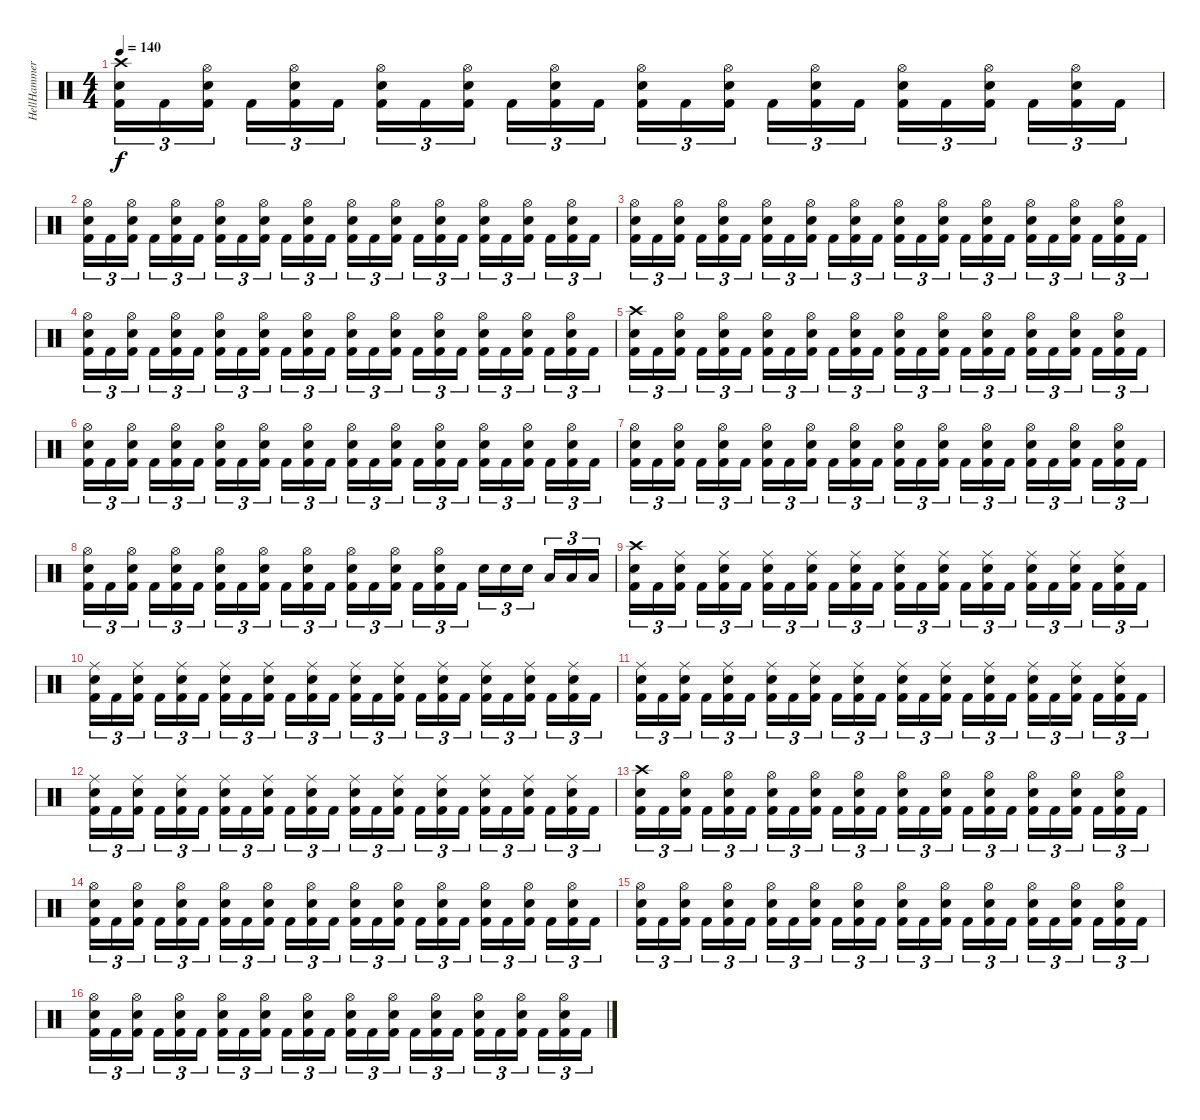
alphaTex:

\track ("HellHammer" "HellHammer") {instrument percussion}
\staff {score}
\articulation defaults
\ts (4 4)
\tempo 140
\clef neutral
\ks c
("Crash high (hit)" "Electric Snare (hit)" "Kick (hit) 2").16{tu (3 2) dy f} "Kick (hit) 2".16{tu (3 2)} ("Hi-Hat (open)" "Electric Snare (hit)" "Kick (hit) 2").16{tu (3 2) beam splitsecondary} "Kick (hit) 2".16{tu (3 2)} ("Hi-Hat (open)" "Electric Snare (hit)" "Kick (hit) 2").16{tu (3 2)} "Kick (hit) 2".16{tu (3 2)} ("Hi-Hat (open)" "Electric Snare (hit)" "Kick (hit) 2").16{tu (3 2)} "Kick (hit) 2".16{tu (3 2)} ("Hi-Hat (open)" "Electric Snare (hit)" "Kick (hit) 2").16{tu (3 2) beam splitsecondary} "Kick (hit) 2".16{tu (3 2)} ("Hi-Hat (open)" "Electric Snare (hit)" "Kick (hit) 2").16{tu (3 2)} "Kick (hit) 2".16{tu (3 2)} ("Hi-Hat (open)" "Electric Snare (hit)" "Kick (hit) 2").16{tu (3 2)} "Kick (hit) 2".16{tu (3 2)} ("Hi-Hat (open)" "Electric Snare (hit)" "Kick (hit) 2").16{tu (3 2) beam splitsecondary} "Kick (hit) 2".16{tu (3 2)} ("Hi-Hat (open)" "Electric Snare (hit)" "Kick (hit) 2").16{tu (3 2)} "Kick (hit) 2".16{tu (3 2)} ("Hi-Hat (open)" "Electric Snare (hit)" "Kick (hit) 2").16{tu (3 2)} "Kick (hit) 2".16{tu (3 2)} ("Hi-Hat (open)" "Electric Snare (hit)" "Kick (hit) 2").16{tu (3 2) beam splitsecondary} "Kick (hit) 2".16{tu (3 2)} ("Hi-Hat (open)" "Electric Snare (hit)" "Kick (hit) 2").16{tu (3 2)} "Kick (hit) 2".16{tu (3 2)} |
("Hi-Hat (open)" "Electric Snare (hit)" "Kick (hit) 2").16{tu (3 2)} "Kick (hit) 2".16{tu (3 2)} ("Hi-Hat (open)" "Electric Snare (hit)" "Kick (hit) 2").16{tu (3 2) beam splitsecondary} "Kick (hit) 2".16{tu (3 2)} ("Hi-Hat (open)" "Electric Snare (hit)" "Kick (hit) 2").16{tu (3 2)} "Kick (hit) 2".16{tu (3 2)} ("Hi-Hat (open)" "Electric Snare (hit)" "Kick (hit) 2").16{tu (3 2)} "Kick (hit) 2".16{tu (3 2)} ("Hi-Hat (open)" "Electric Snare (hit)" "Kick (hit) 2").16{tu (3 2) beam splitsecondary} "Kick (hit) 2".16{tu (3 2)} ("Hi-Hat (open)" "Electric Snare (hit)" "Kick (hit) 2").16{tu (3 2)} "Kick (hit) 2".16{tu (3 2)} ("Hi-Hat (open)" "Electric Snare (hit)" "Kick (hit) 2").16{tu (3 2)} "Kick (hit) 2".16{tu (3 2)} ("Hi-Hat (open)" "Electric Snare (hit)" "Kick (hit) 2").16{tu (3 2) beam splitsecondary} "Kick (hit) 2".16{tu (3 2)} ("Hi-Hat (open)" "Electric Snare (hit)" "Kick (hit) 2").16{tu (3 2)} "Kick (hit) 2".16{tu (3 2)} ("Hi-Hat (open)" "Electric Snare (hit)" "Kick (hit) 2").16{tu (3 2)} "Kick (hit) 2".16{tu (3 2)} ("Hi-Hat (open)" "Electric Snare (hit)" "Kick (hit) 2").16{tu (3 2) beam splitsecondary} "Kick (hit) 2".16{tu (3 2)} ("Hi-Hat (open)" "Electric Snare (hit)" "Kick (hit) 2").16{tu (3 2)} "Kick (hit) 2".16{tu (3 2)} |
("Hi-Hat (open)" "Electric Snare (hit)" "Kick (hit) 2").16{tu (3 2)} "Kick (hit) 2".16{tu (3 2)} ("Hi-Hat (open)" "Electric Snare (hit)" "Kick (hit) 2").16{tu (3 2) beam splitsecondary} "Kick (hit) 2".16{tu (3 2)} ("Hi-Hat (open)" "Electric Snare (hit)" "Kick (hit) 2").16{tu (3 2)} "Kick (hit) 2".16{tu (3 2)} ("Hi-Hat (open)" "Electric Snare (hit)" "Kick (hit) 2").16{tu (3 2)} "Kick (hit) 2".16{tu (3 2)} ("Hi-Hat (open)" "Electric Snare (hit)" "Kick (hit) 2").16{tu (3 2) beam splitsecondary} "Kick (hit) 2".16{tu (3 2)} ("Hi-Hat (open)" "Electric Snare (hit)" "Kick (hit) 2").16{tu (3 2)} "Kick (hit) 2".16{tu (3 2)} ("Hi-Hat (open)" "Electric Snare (hit)" "Kick (hit) 2").16{tu (3 2)} "Kick (hit) 2".16{tu (3 2)} ("Hi-Hat (open)" "Electric Snare (hit)" "Kick (hit) 2").16{tu (3 2) beam splitsecondary} "Kick (hit) 2".16{tu (3 2)} ("Hi-Hat (open)" "Electric Snare (hit)" "Kick (hit) 2").16{tu (3 2)} "Kick (hit) 2".16{tu (3 2)} ("Hi-Hat (open)" "Electric Snare (hit)" "Kick (hit) 2").16{tu (3 2)} "Kick (hit) 2".16{tu (3 2)} ("Hi-Hat (open)" "Electric Snare (hit)" "Kick (hit) 2").16{tu (3 2) beam splitsecondary} "Kick (hit) 2".16{tu (3 2)} ("Hi-Hat (open)" "Electric Snare (hit)" "Kick (hit) 2").16{tu (3 2)} "Kick (hit) 2".16{tu (3 2)} |
("Hi-Hat (open)" "Electric Snare (hit)" "Kick (hit) 2").16{tu (3 2)} "Kick (hit) 2".16{tu (3 2)} ("Hi-Hat (open)" "Electric Snare (hit)" "Kick (hit) 2").16{tu (3 2) beam splitsecondary} "Kick (hit) 2".16{tu (3 2)} ("Hi-Hat (open)" "Electric Snare (hit)" "Kick (hit) 2").16{tu (3 2)} "Kick (hit) 2".16{tu (3 2)} ("Hi-Hat (open)" "Electric Snare (hit)" "Kick (hit) 2").16{tu (3 2)} "Kick (hit) 2".16{tu (3 2)} ("Hi-Hat (open)" "Electric Snare (hit)" "Kick (hit) 2").16{tu (3 2) beam splitsecondary} "Kick (hit) 2".16{tu (3 2)} ("Hi-Hat (open)" "Electric Snare (hit)" "Kick (hit) 2").16{tu (3 2)} "Kick (hit) 2".16{tu (3 2)} ("Hi-Hat (open)" "Electric Snare (hit)" "Kick (hit) 2").16{tu (3 2)} "Kick (hit) 2".16{tu (3 2)} ("Hi-Hat (open)" "Electric Snare (hit)" "Kick (hit) 2").16{tu (3 2) beam splitsecondary} "Kick (hit) 2".16{tu (3 2)} ("Hi-Hat (open)" "Electric Snare (hit)" "Kick (hit) 2").16{tu (3 2)} "Kick (hit) 2".16{tu (3 2)} ("Hi-Hat (open)" "Electric Snare (hit)" "Kick (hit) 2").16{tu (3 2)} "Kick (hit) 2".16{tu (3 2)} ("Hi-Hat (open)" "Electric Snare (hit)" "Kick (hit) 2").16{tu (3 2) beam splitsecondary} "Kick (hit) 2".16{tu (3 2)} ("Hi-Hat (open)" "Electric Snare (hit)" "Kick (hit) 2").16{tu (3 2)} "Kick (hit) 2".16{tu (3 2)} |
("Crash high (hit)" "Electric Snare (hit)" "Kick (hit) 2").16{tu (3 2)} "Kick (hit) 2".16{tu (3 2)} ("Hi-Hat (open)" "Electric Snare (hit)" "Kick (hit) 2").16{tu (3 2) beam splitsecondary} "Kick (hit) 2".16{tu (3 2)} ("Hi-Hat (open)" "Electric Snare (hit)" "Kick (hit) 2").16{tu (3 2)} "Kick (hit) 2".16{tu (3 2)} ("Hi-Hat (open)" "Electric Snare (hit)" "Kick (hit) 2").16{tu (3 2)} "Kick (hit) 2".16{tu (3 2)} ("Hi-Hat (open)" "Electric Snare (hit)" "Kick (hit) 2").16{tu (3 2) beam splitsecondary} "Kick (hit) 2".16{tu (3 2)} ("Hi-Hat (open)" "Electric Snare (hit)" "Kick (hit) 2").16{tu (3 2)} "Kick (hit) 2".16{tu (3 2)} ("Hi-Hat (open)" "Electric Snare (hit)" "Kick (hit) 2").16{tu (3 2)} "Kick (hit) 2".16{tu (3 2)} ("Hi-Hat (open)" "Electric Snare (hit)" "Kick (hit) 2").16{tu (3 2) beam splitsecondary} "Kick (hit) 2".16{tu (3 2)} ("Hi-Hat (open)" "Electric Snare (hit)" "Kick (hit) 2").16{tu (3 2)} "Kick (hit) 2".16{tu (3 2)} ("Hi-Hat (open)" "Electric Snare (hit)" "Kick (hit) 2").16{tu (3 2)} "Kick (hit) 2".16{tu (3 2)} ("Hi-Hat (open)" "Electric Snare (hit)" "Kick (hit) 2").16{tu (3 2) beam splitsecondary} "Kick (hit) 2".16{tu (3 2)} ("Hi-Hat (open)" "Electric Snare (hit)" "Kick (hit) 2").16{tu (3 2)} "Kick (hit) 2".16{tu (3 2)} |
("Hi-Hat (open)" "Electric Snare (hit)" "Kick (hit) 2").16{tu (3 2)} "Kick (hit) 2".16{tu (3 2)} ("Hi-Hat (open)" "Electric Snare (hit)" "Kick (hit) 2").16{tu (3 2) beam splitsecondary} "Kick (hit) 2".16{tu (3 2)} ("Hi-Hat (open)" "Electric Snare (hit)" "Kick (hit) 2").16{tu (3 2)} "Kick (hit) 2".16{tu (3 2)} ("Hi-Hat (open)" "Electric Snare (hit)" "Kick (hit) 2").16{tu (3 2)} "Kick (hit) 2".16{tu (3 2)} ("Hi-Hat (open)" "Electric Snare (hit)" "Kick (hit) 2").16{tu (3 2) beam splitsecondary} "Kick (hit) 2".16{tu (3 2)} ("Hi-Hat (open)" "Electric Snare (hit)" "Kick (hit) 2").16{tu (3 2)} "Kick (hit) 2".16{tu (3 2)} ("Hi-Hat (open)" "Electric Snare (hit)" "Kick (hit) 2").16{tu (3 2)} "Kick (hit) 2".16{tu (3 2)} ("Hi-Hat (open)" "Electric Snare (hit)" "Kick (hit) 2").16{tu (3 2) beam splitsecondary} "Kick (hit) 2".16{tu (3 2)} ("Hi-Hat (open)" "Electric Snare (hit)" "Kick (hit) 2").16{tu (3 2)} "Kick (hit) 2".16{tu (3 2)} ("Hi-Hat (open)" "Electric Snare (hit)" "Kick (hit) 2").16{tu (3 2)} "Kick (hit) 2".16{tu (3 2)} ("Hi-Hat (open)" "Electric Snare (hit)" "Kick (hit) 2").16{tu (3 2) beam splitsecondary} "Kick (hit) 2".16{tu (3 2)} ("Hi-Hat (open)" "Electric Snare (hit)" "Kick (hit) 2").16{tu (3 2)} "Kick (hit) 2".16{tu (3 2)} |
("Hi-Hat (open)" "Electric Snare (hit)" "Kick (hit) 2").16{tu (3 2)} "Kick (hit) 2".16{tu (3 2)} ("Hi-Hat (open)" "Electric Snare (hit)" "Kick (hit) 2").16{tu (3 2) beam splitsecondary} "Kick (hit) 2".16{tu (3 2)} ("Hi-Hat (open)" "Electric Snare (hit)" "Kick (hit) 2").16{tu (3 2)} "Kick (hit) 2".16{tu (3 2)} ("Hi-Hat (open)" "Electric Snare (hit)" "Kick (hit) 2").16{tu (3 2)} "Kick (hit) 2".16{tu (3 2)} ("Hi-Hat (open)" "Electric Snare (hit)" "Kick (hit) 2").16{tu (3 2) beam splitsecondary} "Kick (hit) 2".16{tu (3 2)} ("Hi-Hat (open)" "Electric Snare (hit)" "Kick (hit) 2").16{tu (3 2)} "Kick (hit) 2".16{tu (3 2)} ("Hi-Hat (open)" "Electric Snare (hit)" "Kick (hit) 2").16{tu (3 2)} "Kick (hit) 2".16{tu (3 2)} ("Hi-Hat (open)" "Electric Snare (hit)" "Kick (hit) 2").16{tu (3 2) beam splitsecondary} "Kick (hit) 2".16{tu (3 2)} ("Hi-Hat (open)" "Electric Snare (hit)" "Kick (hit) 2").16{tu (3 2)} "Kick (hit) 2".16{tu (3 2)} ("Hi-Hat (open)" "Electric Snare (hit)" "Kick (hit) 2").16{tu (3 2)} "Kick (hit) 2".16{tu (3 2)} ("Hi-Hat (open)" "Electric Snare (hit)" "Kick (hit) 2").16{tu (3 2) beam splitsecondary} "Kick (hit) 2".16{tu (3 2)} ("Hi-Hat (open)" "Electric Snare (hit)" "Kick (hit) 2").16{tu (3 2)} "Kick (hit) 2".16{tu (3 2)} |
("Hi-Hat (open)" "Electric Snare (hit)" "Kick (hit) 2").16{tu (3 2)} "Kick (hit) 2".16{tu (3 2)} ("Hi-Hat (open)" "Electric Snare (hit)" "Kick (hit) 2").16{tu (3 2) beam splitsecondary} "Kick (hit) 2".16{tu (3 2)} ("Hi-Hat (open)" "Electric Snare (hit)" "Kick (hit) 2").16{tu (3 2)} "Kick (hit) 2".16{tu (3 2)} ("Hi-Hat (open)" "Electric Snare (hit)" "Kick (hit) 2").16{tu (3 2)} "Kick (hit) 2".16{tu (3 2)} ("Hi-Hat (open)" "Electric Snare (hit)" "Kick (hit) 2").16{tu (3 2) beam splitsecondary} "Kick (hit) 2".16{tu (3 2)} ("Hi-Hat (open)" "Electric Snare (hit)" "Kick (hit) 2").16{tu (3 2)} "Kick (hit) 2".16{tu (3 2)} ("Hi-Hat (open)" "Electric Snare (hit)" "Kick (hit) 2").16{tu (3 2)} "Kick (hit) 2".16{tu (3 2)} ("Hi-Hat (open)" "Electric Snare (hit)" "Kick (hit) 2").16{tu (3 2) beam splitsecondary} "Kick (hit) 2".16{tu (3 2)} ("Hi-Hat (open)" "Electric Snare (hit)" "Kick (hit) 2").16{tu (3 2)} "Kick (hit) 2".16{tu (3 2)} "Electric Snare (hit)".16{tu (3 2)} "Electric Snare (hit)".16{tu (3 2)} "Electric Snare (hit)".16{tu (3 2) beam splitsecondary} "Low Tom (hit)".16{tu (3 2)} "Low Tom (hit)".16{tu (3 2)} "Low Tom (hit)".16{tu (3 2)} |
("Crash high (hit)" "Electric Snare (hit)" "Kick (hit) 2").16{tu (3 2)} "Kick (hit) 2".16{tu (3 2)} ("Ride (middle)" "Electric Snare (hit)" "Kick (hit) 2").16{tu (3 2) beam splitsecondary} "Kick (hit) 2".16{tu (3 2)} ("Ride (middle)" "Electric Snare (hit)" "Kick (hit) 2").16{tu (3 2)} "Kick (hit) 2".16{tu (3 2)} ("Ride (middle)" "Electric Snare (hit)" "Kick (hit) 2").16{tu (3 2)} "Kick (hit) 2".16{tu (3 2)} ("Ride (middle)" "Electric Snare (hit)" "Kick (hit) 2").16{tu (3 2) beam splitsecondary} "Kick (hit) 2".16{tu (3 2)} ("Ride (middle)" "Electric Snare (hit)" "Kick (hit) 2").16{tu (3 2)} "Kick (hit) 2".16{tu (3 2)} ("Ride (middle)" "Electric Snare (hit)" "Kick (hit) 2").16{tu (3 2)} "Kick (hit) 2".16{tu (3 2)} ("Ride (middle)" "Electric Snare (hit)" "Kick (hit) 2").16{tu (3 2) beam splitsecondary} "Kick (hit) 2".16{tu (3 2)} ("Ride (middle)" "Electric Snare (hit)" "Kick (hit) 2").16{tu (3 2)} "Kick (hit) 2".16{tu (3 2)} ("Ride (middle)" "Electric Snare (hit)" "Kick (hit) 2").16{tu (3 2)} "Kick (hit) 2".16{tu (3 2)} ("Ride (middle)" "Electric Snare (hit)" "Kick (hit) 2").16{tu (3 2) beam splitsecondary} "Kick (hit) 2".16{tu (3 2)} ("Ride (middle)" "Electric Snare (hit)" "Kick (hit) 2").16{tu (3 2)} "Kick (hit) 2".16{tu (3 2)} |
("Ride (middle)" "Electric Snare (hit)" "Kick (hit) 2").16{tu (3 2)} "Kick (hit) 2".16{tu (3 2)} ("Ride (middle)" "Electric Snare (hit)" "Kick (hit) 2").16{tu (3 2) beam splitsecondary} "Kick (hit) 2".16{tu (3 2)} ("Ride (middle)" "Electric Snare (hit)" "Kick (hit) 2").16{tu (3 2)} "Kick (hit) 2".16{tu (3 2)} ("Ride (middle)" "Electric Snare (hit)" "Kick (hit) 2").16{tu (3 2)} "Kick (hit) 2".16{tu (3 2)} ("Ride (middle)" "Electric Snare (hit)" "Kick (hit) 2").16{tu (3 2) beam splitsecondary} "Kick (hit) 2".16{tu (3 2)} ("Ride (middle)" "Electric Snare (hit)" "Kick (hit) 2").16{tu (3 2)} "Kick (hit) 2".16{tu (3 2)} ("Ride (middle)" "Electric Snare (hit)" "Kick (hit) 2").16{tu (3 2)} "Kick (hit) 2".16{tu (3 2)} ("Ride (middle)" "Electric Snare (hit)" "Kick (hit) 2").16{tu (3 2) beam splitsecondary} "Kick (hit) 2".16{tu (3 2)} ("Ride (middle)" "Electric Snare (hit)" "Kick (hit) 2").16{tu (3 2)} "Kick (hit) 2".16{tu (3 2)} ("Ride (middle)" "Electric Snare (hit)" "Kick (hit) 2").16{tu (3 2)} "Kick (hit) 2".16{tu (3 2)} ("Ride (middle)" "Electric Snare (hit)" "Kick (hit) 2").16{tu (3 2) beam splitsecondary} "Kick (hit) 2".16{tu (3 2)} ("Ride (middle)" "Electric Snare (hit)" "Kick (hit) 2").16{tu (3 2)} "Kick (hit) 2".16{tu (3 2)} |
("Ride (middle)" "Electric Snare (hit)" "Kick (hit) 2").16{tu (3 2)} "Kick (hit) 2".16{tu (3 2)} ("Ride (middle)" "Electric Snare (hit)" "Kick (hit) 2").16{tu (3 2) beam splitsecondary} "Kick (hit) 2".16{tu (3 2)} ("Ride (middle)" "Electric Snare (hit)" "Kick (hit) 2").16{tu (3 2)} "Kick (hit) 2".16{tu (3 2)} ("Ride (middle)" "Electric Snare (hit)" "Kick (hit) 2").16{tu (3 2)} "Kick (hit) 2".16{tu (3 2)} ("Ride (middle)" "Electric Snare (hit)" "Kick (hit) 2").16{tu (3 2) beam splitsecondary} "Kick (hit) 2".16{tu (3 2)} ("Ride (middle)" "Electric Snare (hit)" "Kick (hit) 2").16{tu (3 2)} "Kick (hit) 2".16{tu (3 2)} ("Ride (middle)" "Electric Snare (hit)" "Kick (hit) 2").16{tu (3 2)} "Kick (hit) 2".16{tu (3 2)} ("Ride (middle)" "Electric Snare (hit)" "Kick (hit) 2").16{tu (3 2) beam splitsecondary} "Kick (hit) 2".16{tu (3 2)} ("Ride (middle)" "Electric Snare (hit)" "Kick (hit) 2").16{tu (3 2)} "Kick (hit) 2".16{tu (3 2)} ("Ride (middle)" "Electric Snare (hit)" "Kick (hit) 2").16{tu (3 2)} "Kick (hit) 2".16{tu (3 2)} ("Ride (middle)" "Electric Snare (hit)" "Kick (hit) 2").16{tu (3 2) beam splitsecondary} "Kick (hit) 2".16{tu (3 2)} ("Ride (middle)" "Electric Snare (hit)" "Kick (hit) 2").16{tu (3 2)} "Kick (hit) 2".16{tu (3 2)} |
("Ride (middle)" "Electric Snare (hit)" "Kick (hit) 2").16{tu (3 2)} "Kick (hit) 2".16{tu (3 2)} ("Ride (middle)" "Electric Snare (hit)" "Kick (hit) 2").16{tu (3 2) beam splitsecondary} "Kick (hit) 2".16{tu (3 2)} ("Ride (middle)" "Electric Snare (hit)" "Kick (hit) 2").16{tu (3 2)} "Kick (hit) 2".16{tu (3 2)} ("Ride (middle)" "Electric Snare (hit)" "Kick (hit) 2").16{tu (3 2)} "Kick (hit) 2".16{tu (3 2)} ("Ride (middle)" "Electric Snare (hit)" "Kick (hit) 2").16{tu (3 2) beam splitsecondary} "Kick (hit) 2".16{tu (3 2)} ("Ride (middle)" "Electric Snare (hit)" "Kick (hit) 2").16{tu (3 2)} "Kick (hit) 2".16{tu (3 2)} ("Ride (middle)" "Electric Snare (hit)" "Kick (hit) 2").16{tu (3 2)} "Kick (hit) 2".16{tu (3 2)} ("Ride (middle)" "Electric Snare (hit)" "Kick (hit) 2").16{tu (3 2) beam splitsecondary} "Kick (hit) 2".16{tu (3 2)} ("Ride (middle)" "Electric Snare (hit)" "Kick (hit) 2").16{tu (3 2)} "Kick (hit) 2".16{tu (3 2)} ("Ride (middle)" "Electric Snare (hit)" "Kick (hit) 2").16{tu (3 2)} "Kick (hit) 2".16{tu (3 2)} ("Ride (middle)" "Electric Snare (hit)" "Kick (hit) 2").16{tu (3 2) beam splitsecondary} "Kick (hit) 2".16{tu (3 2)} ("Ride (middle)" "Electric Snare (hit)" "Kick (hit) 2").16{tu (3 2)} "Kick (hit) 2".16{tu (3 2)} |
("Crash high (hit)" "Electric Snare (hit)" "Kick (hit) 2").16{tu (3 2)} "Kick (hit) 2".16{tu (3 2)} ("Hi-Hat (open)" "Electric Snare (hit)" "Kick (hit) 2").16{tu (3 2) beam splitsecondary} "Kick (hit) 2".16{tu (3 2)} ("Hi-Hat (open)" "Electric Snare (hit)" "Kick (hit) 2").16{tu (3 2)} "Kick (hit) 2".16{tu (3 2)} ("Hi-Hat (open)" "Electric Snare (hit)" "Kick (hit) 2").16{tu (3 2)} "Kick (hit) 2".16{tu (3 2)} ("Hi-Hat (open)" "Electric Snare (hit)" "Kick (hit) 2").16{tu (3 2) beam splitsecondary} "Kick (hit) 2".16{tu (3 2)} ("Hi-Hat (open)" "Electric Snare (hit)" "Kick (hit) 2").16{tu (3 2)} "Kick (hit) 2".16{tu (3 2)} ("Hi-Hat (open)" "Electric Snare (hit)" "Kick (hit) 2").16{tu (3 2)} "Kick (hit) 2".16{tu (3 2)} ("Hi-Hat (open)" "Electric Snare (hit)" "Kick (hit) 2").16{tu (3 2) beam splitsecondary} "Kick (hit) 2".16{tu (3 2)} ("Hi-Hat (open)" "Electric Snare (hit)" "Kick (hit) 2").16{tu (3 2)} "Kick (hit) 2".16{tu (3 2)} ("Hi-Hat (open)" "Electric Snare (hit)" "Kick (hit) 2").16{tu (3 2)} "Kick (hit) 2".16{tu (3 2)} ("Hi-Hat (open)" "Electric Snare (hit)" "Kick (hit) 2").16{tu (3 2) beam splitsecondary} "Kick (hit) 2".16{tu (3 2)} ("Hi-Hat (open)" "Electric Snare (hit)" "Kick (hit) 2").16{tu (3 2)} "Kick (hit) 2".16{tu (3 2)} |
("Hi-Hat (open)" "Electric Snare (hit)" "Kick (hit) 2").16{tu (3 2)} "Kick (hit) 2".16{tu (3 2)} ("Hi-Hat (open)" "Electric Snare (hit)" "Kick (hit) 2").16{tu (3 2) beam splitsecondary} "Kick (hit) 2".16{tu (3 2)} ("Hi-Hat (open)" "Electric Snare (hit)" "Kick (hit) 2").16{tu (3 2)} "Kick (hit) 2".16{tu (3 2)} ("Hi-Hat (open)" "Electric Snare (hit)" "Kick (hit) 2").16{tu (3 2)} "Kick (hit) 2".16{tu (3 2)} ("Hi-Hat (open)" "Electric Snare (hit)" "Kick (hit) 2").16{tu (3 2) beam splitsecondary} "Kick (hit) 2".16{tu (3 2)} ("Hi-Hat (open)" "Electric Snare (hit)" "Kick (hit) 2").16{tu (3 2)} "Kick (hit) 2".16{tu (3 2)} ("Hi-Hat (open)" "Electric Snare (hit)" "Kick (hit) 2").16{tu (3 2)} "Kick (hit) 2".16{tu (3 2)} ("Hi-Hat (open)" "Electric Snare (hit)" "Kick (hit) 2").16{tu (3 2) beam splitsecondary} "Kick (hit) 2".16{tu (3 2)} ("Hi-Hat (open)" "Electric Snare (hit)" "Kick (hit) 2").16{tu (3 2)} "Kick (hit) 2".16{tu (3 2)} ("Hi-Hat (open)" "Electric Snare (hit)" "Kick (hit) 2").16{tu (3 2)} "Kick (hit) 2".16{tu (3 2)} ("Hi-Hat (open)" "Electric Snare (hit)" "Kick (hit) 2").16{tu (3 2) beam splitsecondary} "Kick (hit) 2".16{tu (3 2)} ("Hi-Hat (open)" "Electric Snare (hit)" "Kick (hit) 2").16{tu (3 2)} "Kick (hit) 2".16{tu (3 2)} |
("Hi-Hat (open)" "Electric Snare (hit)" "Kick (hit) 2").16{tu (3 2)} "Kick (hit) 2".16{tu (3 2)} ("Hi-Hat (open)" "Electric Snare (hit)" "Kick (hit) 2").16{tu (3 2) beam splitsecondary} "Kick (hit) 2".16{tu (3 2)} ("Hi-Hat (open)" "Electric Snare (hit)" "Kick (hit) 2").16{tu (3 2)} "Kick (hit) 2".16{tu (3 2)} ("Hi-Hat (open)" "Electric Snare (hit)" "Kick (hit) 2").16{tu (3 2)} "Kick (hit) 2".16{tu (3 2)} ("Hi-Hat (open)" "Electric Snare (hit)" "Kick (hit) 2").16{tu (3 2) beam splitsecondary} "Kick (hit) 2".16{tu (3 2)} ("Hi-Hat (open)" "Electric Snare (hit)" "Kick (hit) 2").16{tu (3 2)} "Kick (hit) 2".16{tu (3 2)} ("Hi-Hat (open)" "Electric Snare (hit)" "Kick (hit) 2").16{tu (3 2)} "Kick (hit) 2".16{tu (3 2)} ("Hi-Hat (open)" "Electric Snare (hit)" "Kick (hit) 2").16{tu (3 2) beam splitsecondary} "Kick (hit) 2".16{tu (3 2)} ("Hi-Hat (open)" "Electric Snare (hit)" "Kick (hit) 2").16{tu (3 2)} "Kick (hit) 2".16{tu (3 2)} ("Hi-Hat (open)" "Electric Snare (hit)" "Kick (hit) 2").16{tu (3 2)} "Kick (hit) 2".16{tu (3 2)} ("Hi-Hat (open)" "Electric Snare (hit)" "Kick (hit) 2").16{tu (3 2) beam splitsecondary} "Kick (hit) 2".16{tu (3 2)} ("Hi-Hat (open)" "Electric Snare (hit)" "Kick (hit) 2").16{tu (3 2)} "Kick (hit) 2".16{tu (3 2)} |
("Hi-Hat (open)" "Electric Snare (hit)" "Kick (hit) 2").16{tu (3 2)} "Kick (hit) 2".16{tu (3 2)} ("Hi-Hat (open)" "Electric Snare (hit)" "Kick (hit) 2").16{tu (3 2) beam splitsecondary} "Kick (hit) 2".16{tu (3 2)} ("Hi-Hat (open)" "Electric Snare (hit)" "Kick (hit) 2").16{tu (3 2)} "Kick (hit) 2".16{tu (3 2)} ("Hi-Hat (open)" "Electric Snare (hit)" "Kick (hit) 2").16{tu (3 2)} "Kick (hit) 2".16{tu (3 2)} ("Hi-Hat (open)" "Electric Snare (hit)" "Kick (hit) 2").16{tu (3 2) beam splitsecondary} "Kick (hit) 2".16{tu (3 2)} ("Hi-Hat (open)" "Electric Snare (hit)" "Kick (hit) 2").16{tu (3 2)} "Kick (hit) 2".16{tu (3 2)} ("Hi-Hat (open)" "Electric Snare (hit)" "Kick (hit) 2").16{tu (3 2)} "Kick (hit) 2".16{tu (3 2)} ("Hi-Hat (open)" "Electric Snare (hit)" "Kick (hit) 2").16{tu (3 2) beam splitsecondary} "Kick (hit) 2".16{tu (3 2)} ("Hi-Hat (open)" "Electric Snare (hit)" "Kick (hit) 2").16{tu (3 2)} "Kick (hit) 2".16{tu (3 2)} ("Hi-Hat (open)" "Electric Snare (hit)" "Kick (hit) 2").16{tu (3 2)} "Kick (hit) 2".16{tu (3 2)} ("Hi-Hat (open)" "Electric Snare (hit)" "Kick (hit) 2").16{tu (3 2) beam splitsecondary} "Kick (hit) 2".16{tu (3 2)} ("Hi-Hat (open)" "Electric Snare (hit)" "Kick (hit) 2").16{tu (3 2)} "Kick (hit) 2".16{tu (3 2)}
